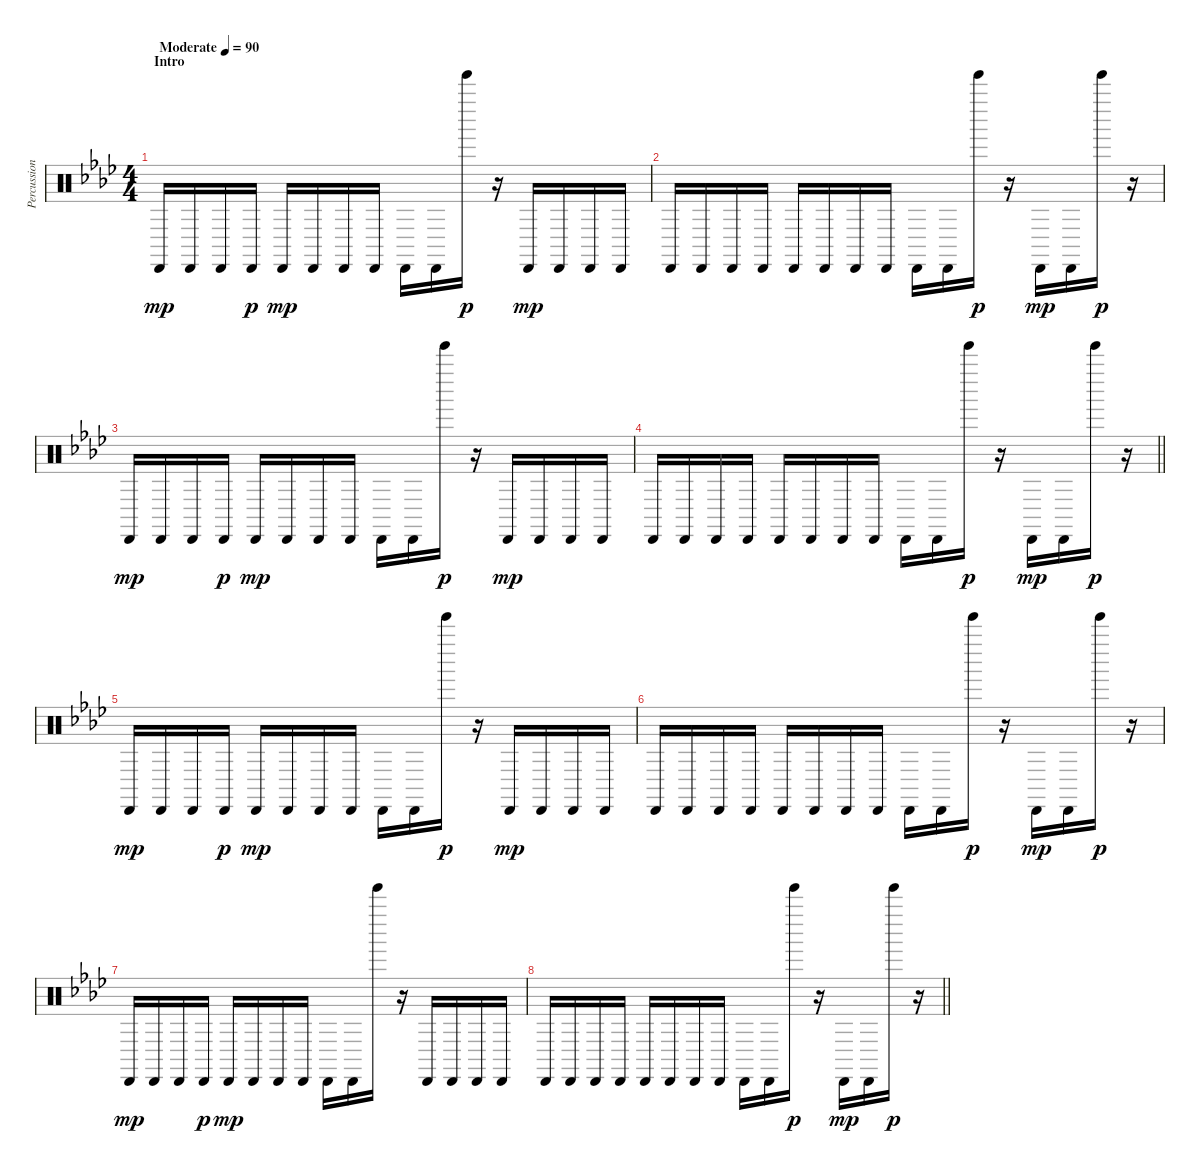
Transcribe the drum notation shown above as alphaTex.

\track ("Percussion" "Percussion") {instrument percussion}
\staff {score}
\articulation defaults
\ts (4 4)
\section ("" "Intro")
\tempo (90 "Moderate")
\clef neutral
\ks ab "Cabasa (hit)".16{dy mp} "Cabasa (hit)".16 "Cabasa (hit)".16 "Cabasa (hit)".16{dy p} "Cabasa (hit)".16{dy mp} "Cabasa (hit)".16 "Cabasa (hit)".16 "Cabasa (hit)".16 "Cabasa (hit)".16 "Cabasa (hit)".16 "Tinkle Bell (hit)".16{dy p}
r.16 "Cabasa (hit)".16{dy mp} "Cabasa (hit)".16 "Cabasa (hit)".16 "Cabasa (hit)".16 |
"Cabasa (hit)".16 "Cabasa (hit)".16 "Cabasa (hit)".16 "Cabasa (hit)".16 "Cabasa (hit)".16 "Cabasa (hit)".16 "Cabasa (hit)".16 "Cabasa (hit)".16 "Cabasa (hit)".16 "Cabasa (hit)".16 "Tinkle Bell (hit)".16{dy p} r.16 "Cabasa (hit)".16{dy mp} "Cabasa (hit)".16 "Tinkle Bell (hit)".16{dy p} r.16 |
"Cabasa (hit)".16{dy mp} "Cabasa (hit)".16 "Cabasa (hit)".16 "Cabasa (hit)".16{dy p} "Cabasa (hit)".16{dy mp} "Cabasa (hit)".16 "Cabasa (hit)".16 "Cabasa (hit)".16 "Cabasa (hit)".16 "Cabasa (hit)".16 "Tinkle Bell (hit)".16{dy p} r.16 "Cabasa (hit)".16{dy mp} "Cabasa (hit)".16 "Cabasa (hit)".16 "Cabasa (hit)".16 |
\barLineRight lightlight "Cabasa (hit)".16 "Cabasa (hit)".16 "Cabasa (hit)".16 "Cabasa (hit)".16 "Cabasa (hit)".16 "Cabasa (hit)".16 "Cabasa (hit)".16 "Cabasa (hit)".16 "Cabasa (hit)".16 "Cabasa (hit)".16 "Tinkle Bell (hit)".16{dy p}
r.16 "Cabasa (hit)".16{dy mp} "Cabasa (hit)".16 "Tinkle Bell (hit)".16{dy p} r.16 |
"Cabasa (hit)".16{dy mp} "Cabasa (hit)".16 "Cabasa (hit)".16 "Cabasa (hit)".16{dy p} "Cabasa (hit)".16{dy mp} "Cabasa (hit)".16 "Cabasa (hit)".16 "Cabasa (hit)".16 "Cabasa (hit)".16 "Cabasa (hit)".16 "Tinkle Bell (hit)".16{dy p} r.16 "Cabasa (hit)".16{dy mp} "Cabasa (hit)".16 "Cabasa (hit)".16 "Cabasa (hit)".16 |
"Cabasa (hit)".16 "Cabasa (hit)".16 "Cabasa (hit)".16 "Cabasa (hit)".16 "Cabasa (hit)".16 "Cabasa (hit)".16 "Cabasa (hit)".16 "Cabasa (hit)".16 "Cabasa (hit)".16 "Cabasa (hit)".16 "Tinkle Bell (hit)".16{dy p} r.16 "Cabasa (hit)".16{dy mp} "Cabasa (hit)".16 "Tinkle Bell (hit)".16{dy p} r.16 |
"Cabasa (hit)".16{dy mp} "Cabasa (hit)".16 "Cabasa (hit)".16 "Cabasa (hit)".16{dy p} "Cabasa (hit)".16{dy mp} "Cabasa (hit)".16 "Cabasa (hit)".16 "Cabasa (hit)".16 "Cabasa (hit)".16 "Cabasa (hit)".16 "Tinkle Bell (hit)".16 r.16 "Cabasa (hit)".16 "Cabasa (hit)".16 "Cabasa (hit)".16 "Cabasa (hit)".16 |
\barLineRight lightlight "Cabasa (hit)".16 "Cabasa (hit)".16 "Cabasa (hit)".16 "Cabasa (hit)".16 "Cabasa (hit)".16 "Cabasa (hit)".16 "Cabasa (hit)".16 "Cabasa (hit)".16 "Cabasa (hit)".16 "Cabasa (hit)".16 "Tinkle Bell (hit)".16{dy p}
r.16 "Cabasa (hit)".16{dy mp} "Cabasa (hit)".16 "Tinkle Bell (hit)".16{dy p} r.16
